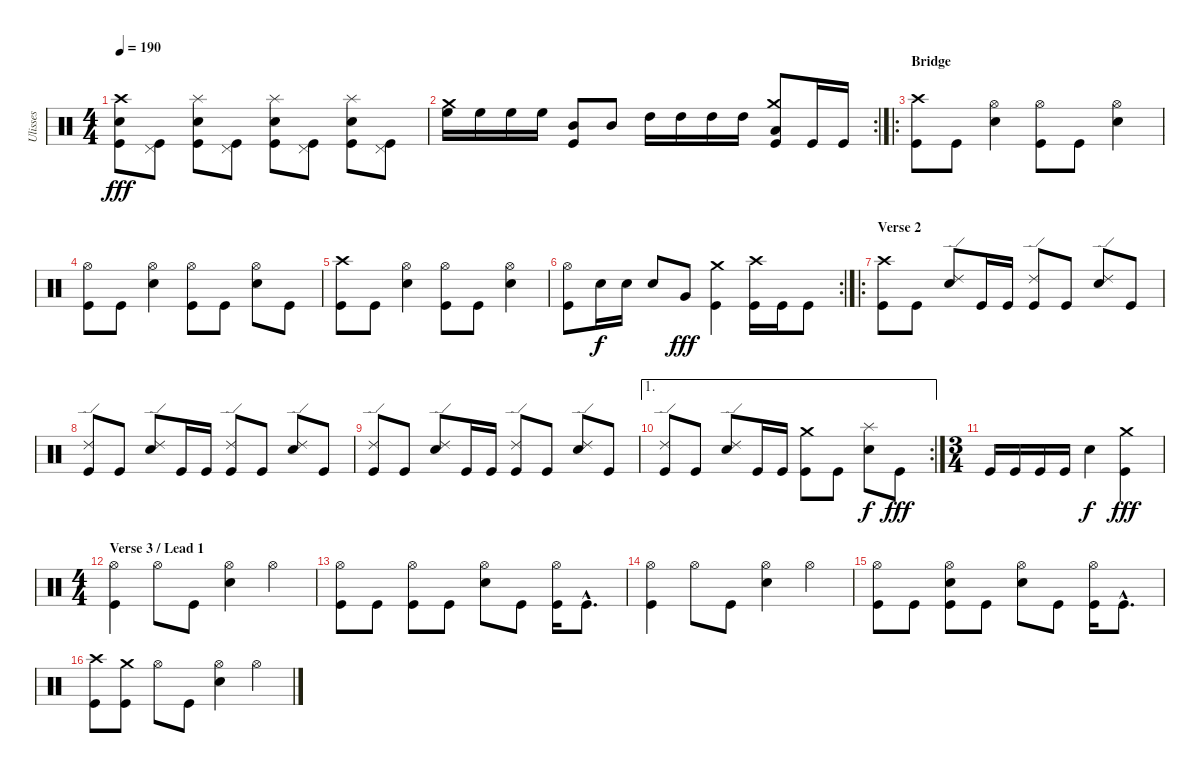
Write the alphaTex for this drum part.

\track ("Ulisses" "Ulisses") {instrument percussion}
\staff {score}
\articulation defaults
\ts (4 4)
\tempo 190
\clef neutral
\ks c
("Crash high (hit)" "Electric Snare (hit)" "Kick (hit)").8{dy fff} ("Pedal Hi-Hat (hit)" "Kick (hit)").8 ("Splash (hit)" "Electric Snare (hit)" "Kick (hit)").8 ("Pedal Hi-Hat (hit)" "Kick (hit)").8 ("Splash (hit)" "Electric Snare (hit)" "Kick (hit)").8 ("Pedal Hi-Hat (hit)" "Kick (hit)").8 ("Splash (hit)" "Electric Snare (hit)" "Kick (hit)").8 ("Pedal Hi-Hat (hit)" "Kick (hit)").8 |
\rc 2
("Crash medium (hit)" "High Floor Tom (hit)").16 "High Floor Tom (hit)".16 "High Floor Tom (hit)".16 "High Floor Tom (hit)".16 ("Mid Tom (hit)" "Kick (hit)").8 "Mid Tom (hit)".8 "High Tom (hit)".16 "High Tom (hit)".16 "High Tom (hit)".16 "High Tom (hit)".16 ("Crash medium (hit)" "Low Tom (hit)" "Kick (hit)").8 "Kick (hit)".16 "Kick (hit)".16 |
\ro
\section ("" "Bridge")
("Crash high (hit)" "Kick (hit)").8 "Kick (hit)".8 ("Hi-Hat (open)" "Electric Snare (hit)").4 ("Hi-Hat (open)" "Kick (hit)").8 "Kick (hit)".8 ("Hi-Hat (open)" "Electric Snare (hit)").4 |
("Hi-Hat (open)" "Kick (hit)").8 "Kick (hit)".8 ("Hi-Hat (open)" "Electric Snare (hit)").4 ("Hi-Hat (open)" "Kick (hit)").8 "Kick (hit)".8 ("Hi-Hat (open)" "Electric Snare (hit)").8 "Kick (hit)".8 |
("Crash high (hit)" "Kick (hit)").8 "Kick (hit)".8 ("Hi-Hat (open)" "Electric Snare (hit)").4 ("Hi-Hat (open)" "Kick (hit)").8 "Kick (hit)".8 ("Hi-Hat (open)" "Electric Snare (hit)").4 |
\rc 2
("Hi-Hat (open)" "Kick (hit)").8 "Electric Snare (hit)".16{dy f} "Electric Snare (hit)".16 "Electric Snare (hit)".8 "Very Low Tom (hit)".8{dy fff} ("Crash medium (hit)" "Kick (hit)").4 ("Crash high (hit)" "Kick (hit)").16 "Kick (hit)".16 "Kick (hit)".8 |
\ro
\section ("" "Verse 2")
("Crash high (hit)" "Kick (hit)").8 "Kick (hit)".8 ("Ride (edge) 2" "Electric Snare (hit)").8 "Kick (hit)".16 "Kick (hit)".16 ("Ride (edge) 2" "Kick (hit)").8 "Kick (hit)".8 ("Ride (edge) 2" "Electric Snare (hit)").8 "Kick (hit)".8 |
("Ride (edge) 2" "Kick (hit)").8 "Kick (hit)".8 ("Ride (edge) 2" "Electric Snare (hit)").8 "Kick (hit)".16 "Kick (hit)".16 ("Ride (edge) 2" "Kick (hit)").8 "Kick (hit)".8 ("Ride (edge) 2" "Electric Snare (hit)").8 "Kick (hit)".8 |
("Ride (edge) 2" "Kick (hit)").8 "Kick (hit)".8 ("Ride (edge) 2" "Electric Snare (hit)").8 "Kick (hit)".16 "Kick (hit)".16 ("Ride (edge) 2" "Kick (hit)").8 "Kick (hit)".8 ("Ride (edge) 2" "Electric Snare (hit)").8 "Kick (hit)".8 |
\ae 1
\rc 2
("Ride (edge) 2" "Kick (hit)").8 "Kick (hit)".8 ("Ride (edge) 2" "Electric Snare (hit)").8 "Kick (hit)".16 "Kick (hit)".16 ("Crash medium (hit)" "Kick (hit)").8 "Kick (hit)".8 ("Splash (hit)" "Electric Snare (hit)").8{dy f} "Kick (hit)".8{dy fff} |
\ts (3 4)
"Kick (hit)".16 "Kick (hit)".16 "Kick (hit)".16 "Kick (hit)".16 "Electric Snare (hit)".4{dy f} ("Crash medium (hit)" "Kick (hit)").4{dy fff} |
\ts (4 4)
\section ("" "Verse 3 / Lead 1")
("Hi-Hat (open)" "Kick (hit)").4 "Hi-Hat (open)".8 "Kick (hit)".8 ("Hi-Hat (open)" "Electric Snare (hit)").4 "Hi-Hat (open)".4 |
("Hi-Hat (open)" "Kick (hit)").8 "Kick (hit)".8 ("Hi-Hat (open)" "Kick (hit)").8 "Kick (hit)".8 ("Hi-Hat (open)" "Electric Snare (hit)").8 "Kick (hit)".8 ("Hi-Hat (open)" "Kick (hit)").16 "Kick (hit)"{hac}.8{d} |
("Hi-Hat (open)" "Kick (hit)").4 "Hi-Hat (open)".8 "Kick (hit)".8 ("Hi-Hat (open)" "Electric Snare (hit)").4 "Hi-Hat (open)".4 |
("Hi-Hat (open)" "Kick (hit)").8 "Kick (hit)".8 ("Hi-Hat (open)" "Electric Snare (hit)" "Kick (hit)").8 "Kick (hit)".8 ("Hi-Hat (open)" "Electric Snare (hit)").8 "Kick (hit)".8 ("Hi-Hat (open)" "Kick (hit)").16 "Kick (hit)"{hac}.8{d} |
("Crash high (hit)" "Kick (hit)").8 ("Crash medium (hit)" "Kick (hit)").8 "Hi-Hat (open)".8 "Kick (hit)".8 ("Hi-Hat (open)" "Electric Snare (hit)").4 "Hi-Hat (open)".4
